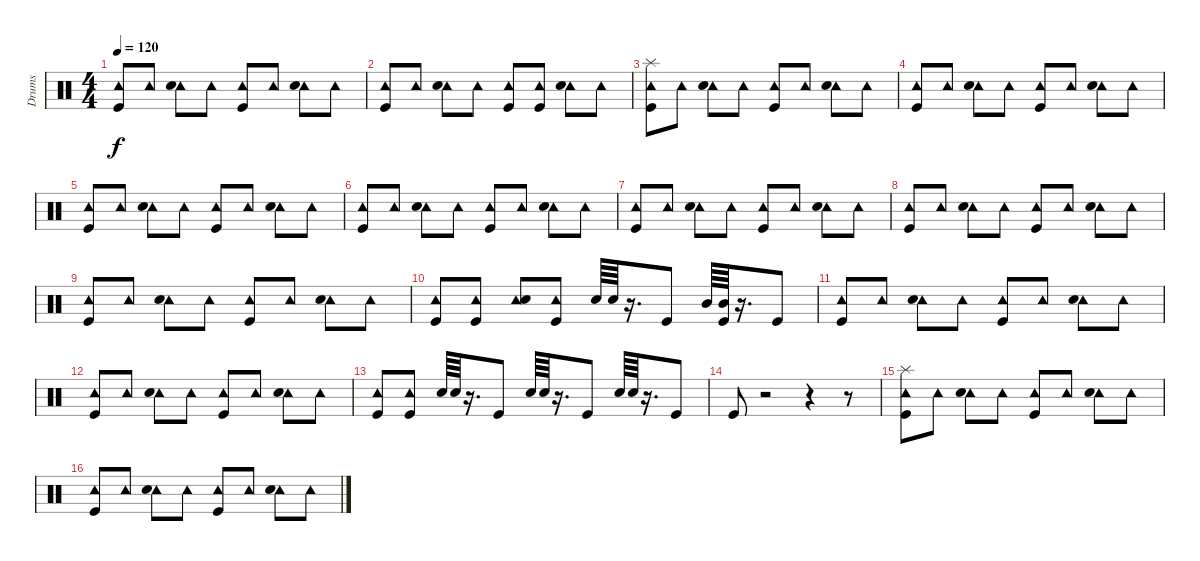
\track ("Drums" "Drums") {instrument percussion}
\staff {score}
\articulation defaults
\ts (4 4)
\tempo 120
\clef neutral
\ks c
("Tambourine (hit)" "Kick (hit)").8{dy f} "Tambourine (hit)".8 ("Tambourine (hit)" "Snare (hit) 2").8 "Tambourine (hit)".8 ("Tambourine (hit)" "Kick (hit)").8 "Tambourine (hit)".8 ("Tambourine (hit)" "Snare (hit) 2").8 "Tambourine (hit)".8 |
("Tambourine (hit)" "Kick (hit)").8 "Tambourine (hit)".8 ("Tambourine (hit)" "Snare (hit) 2").8 "Tambourine (hit)".8 ("Tambourine (hit)" "Kick (hit)").8 ("Tambourine (hit)" "Kick (hit)").8 ("Tambourine (hit)" "Snare (hit) 2").8 "Tambourine (hit)".8 |
("Tambourine (hit)" "Kick (hit)" "Splash (hit)").8 "Tambourine (hit)".8 ("Tambourine (hit)" "Snare (hit) 2").8 "Tambourine (hit)".8 ("Tambourine (hit)" "Kick (hit)").8 "Tambourine (hit)".8 ("Tambourine (hit)" "Snare (hit) 2").8 "Tambourine (hit)".8 |
("Tambourine (hit)" "Kick (hit)").8 "Tambourine (hit)".8 ("Tambourine (hit)" "Snare (hit) 2").8 "Tambourine (hit)".8 ("Tambourine (hit)" "Kick (hit)").8 "Tambourine (hit)".8 ("Tambourine (hit)" "Snare (hit) 2").8 "Tambourine (hit)".8 |
("Tambourine (hit)" "Kick (hit)").8 "Tambourine (hit)".8 ("Tambourine (hit)" "Snare (hit) 2").8 "Tambourine (hit)".8 ("Tambourine (hit)" "Kick (hit)").8 "Tambourine (hit)".8 ("Tambourine (hit)" "Snare (hit) 2").8 "Tambourine (hit)".8 |
("Tambourine (hit)" "Kick (hit)").8 "Tambourine (hit)".8 ("Tambourine (hit)" "Snare (hit) 2").8 "Tambourine (hit)".8 ("Tambourine (hit)" "Kick (hit)").8 "Tambourine (hit)".8 ("Tambourine (hit)" "Snare (hit) 2").8 "Tambourine (hit)".8 |
("Tambourine (hit)" "Kick (hit)").8 "Tambourine (hit)".8 ("Tambourine (hit)" "Snare (hit) 2").8 "Tambourine (hit)".8 ("Tambourine (hit)" "Kick (hit)").8 "Tambourine (hit)".8 ("Tambourine (hit)" "Snare (hit) 2").8 "Tambourine (hit)".8 |
("Tambourine (hit)" "Kick (hit)").8 "Tambourine (hit)".8 ("Tambourine (hit)" "Snare (hit) 2").8 "Tambourine (hit)".8 ("Tambourine (hit)" "Kick (hit)").8 "Tambourine (hit)".8 ("Tambourine (hit)" "Snare (hit) 2").8 "Tambourine (hit)".8 |
("Tambourine (hit)" "Kick (hit)").8 "Tambourine (hit)".8 ("Tambourine (hit)" "Snare (hit) 2").8 "Tambourine (hit)".8 ("Tambourine (hit)" "Kick (hit)").8 "Tambourine (hit)".8 ("Tambourine (hit)" "Snare (hit) 2").8 "Tambourine (hit)".8 |
("Tambourine (hit)" "Kick (hit)").8 ("Tambourine (hit)" "Kick (hit)").8 ("Tambourine (hit)" "Snare (hit) 2").8 ("Tambourine (hit)" "Kick (hit)").8 "Snare (hit) 2".64 "Snare (hit) 2".64 r.16{d} "Kick (hit)".8 "Mid Tom (hit)".64 ("Kick (hit)" "Mid Tom (hit)").64 r.16{d} "Kick (hit)".8 |
("Tambourine (hit)" "Kick (hit)").8 "Tambourine (hit)".8 ("Tambourine (hit)" "Snare (hit) 2").8 "Tambourine (hit)".8 ("Tambourine (hit)" "Kick (hit)").8 "Tambourine (hit)".8 ("Tambourine (hit)" "Snare (hit) 2").8 "Tambourine (hit)".8 |
("Tambourine (hit)" "Kick (hit)").8 "Tambourine (hit)".8 ("Tambourine (hit)" "Snare (hit) 2").8 "Tambourine (hit)".8 ("Tambourine (hit)" "Kick (hit)").8 "Tambourine (hit)".8 ("Tambourine (hit)" "Snare (hit) 2").8 "Tambourine (hit)".8 |
("Tambourine (hit)" "Kick (hit)").8 ("Tambourine (hit)" "Kick (hit)").8 "Snare (hit) 2".64 "Snare (hit) 2".64 r.16{d} "Kick (hit)".8 "Snare (hit) 2".64 "Snare (hit) 2".64 r.16{d} "Kick (hit)".8 "Snare (hit) 2".64 "Snare (hit) 2".64 r.16{d} "Kick (hit)".8 |
"Kick (hit)".8 r.2 r.4 r.8 |
("Tambourine (hit)" "Kick (hit)" "Splash (hit)").8 "Tambourine (hit)".8 ("Tambourine (hit)" "Snare (hit) 2").8 "Tambourine (hit)".8 ("Tambourine (hit)" "Kick (hit)").8 "Tambourine (hit)".8 ("Tambourine (hit)" "Snare (hit) 2").8 "Tambourine (hit)".8 |
("Tambourine (hit)" "Kick (hit)").8 "Tambourine (hit)".8 ("Tambourine (hit)" "Snare (hit) 2").8 "Tambourine (hit)".8 ("Tambourine (hit)" "Kick (hit)").8 "Tambourine (hit)".8 ("Tambourine (hit)" "Snare (hit) 2").8 "Tambourine (hit)".8
